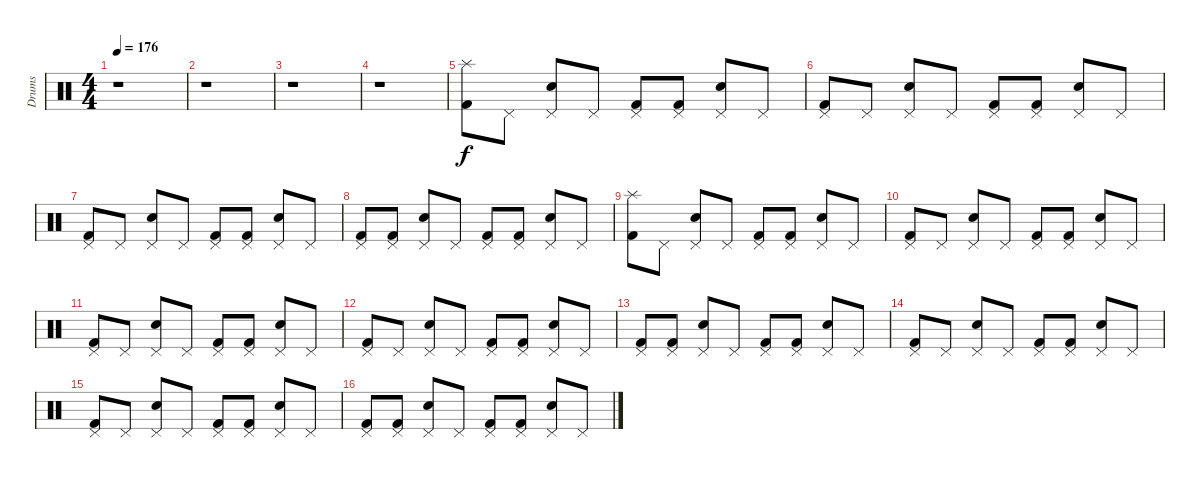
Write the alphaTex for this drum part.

\track ("Drums" "Drums") {instrument percussion}
\staff {score}
\articulation defaults
\ts (4 4)
\tempo 176
\clef neutral
\ks c
r.1{dy f} |
r.1 |
r.1 |
r.1 |
("Splash (hit)" "Kick (hit) 2").8 "Pedal Hi-Hat (hit)".8 ("Snare (hit) 2" "Pedal Hi-Hat (hit)").8 "Pedal Hi-Hat (hit)".8 ("Pedal Hi-Hat (hit)" "Kick (hit) 2").8 ("Kick (hit) 2" "Pedal Hi-Hat (hit)").8 ("Pedal Hi-Hat (hit)" "Snare (hit) 2").8 "Pedal Hi-Hat (hit)".8 |
("Pedal Hi-Hat (hit)" "Kick (hit) 2").8 "Pedal Hi-Hat (hit)".8 ("Snare (hit) 2" "Pedal Hi-Hat (hit)").8 "Pedal Hi-Hat (hit)".8 ("Pedal Hi-Hat (hit)" "Kick (hit) 2").8 ("Kick (hit) 2" "Pedal Hi-Hat (hit)").8 ("Pedal Hi-Hat (hit)" "Snare (hit) 2").8 "Pedal Hi-Hat (hit)".8 |
("Pedal Hi-Hat (hit)" "Kick (hit) 2").8 "Pedal Hi-Hat (hit)".8 ("Snare (hit) 2" "Pedal Hi-Hat (hit)").8 "Pedal Hi-Hat (hit)".8 ("Pedal Hi-Hat (hit)" "Kick (hit) 2").8 ("Kick (hit) 2" "Pedal Hi-Hat (hit)").8 ("Pedal Hi-Hat (hit)" "Snare (hit) 2").8 "Pedal Hi-Hat (hit)".8 |
("Pedal Hi-Hat (hit)" "Kick (hit) 2").8 ("Pedal Hi-Hat (hit)" "Kick (hit) 2").8 ("Snare (hit) 2" "Pedal Hi-Hat (hit)").8 "Pedal Hi-Hat (hit)".8 ("Pedal Hi-Hat (hit)" "Kick (hit) 2").8 ("Kick (hit) 2" "Pedal Hi-Hat (hit)").8 ("Pedal Hi-Hat (hit)" "Snare (hit) 2").8 "Pedal Hi-Hat (hit)".8 |
("Splash (hit)" "Kick (hit) 2").8 "Pedal Hi-Hat (hit)".8 ("Snare (hit) 2" "Pedal Hi-Hat (hit)").8 "Pedal Hi-Hat (hit)".8 ("Pedal Hi-Hat (hit)" "Kick (hit) 2").8 ("Kick (hit) 2" "Pedal Hi-Hat (hit)").8 ("Pedal Hi-Hat (hit)" "Snare (hit) 2").8 "Pedal Hi-Hat (hit)".8 |
("Pedal Hi-Hat (hit)" "Kick (hit) 2").8 "Pedal Hi-Hat (hit)".8 ("Snare (hit) 2" "Pedal Hi-Hat (hit)").8 "Pedal Hi-Hat (hit)".8 ("Pedal Hi-Hat (hit)" "Kick (hit) 2").8 ("Kick (hit) 2" "Pedal Hi-Hat (hit)").8 ("Pedal Hi-Hat (hit)" "Snare (hit) 2").8 "Pedal Hi-Hat (hit)".8 |
("Pedal Hi-Hat (hit)" "Kick (hit) 2").8 "Pedal Hi-Hat (hit)".8 ("Snare (hit) 2" "Pedal Hi-Hat (hit)").8 "Pedal Hi-Hat (hit)".8 ("Pedal Hi-Hat (hit)" "Kick (hit) 2").8 ("Kick (hit) 2" "Pedal Hi-Hat (hit)").8 ("Pedal Hi-Hat (hit)" "Snare (hit) 2").8 "Pedal Hi-Hat (hit)".8 |
("Pedal Hi-Hat (hit)" "Kick (hit) 2").8 "Pedal Hi-Hat (hit)".8 ("Snare (hit) 2" "Pedal Hi-Hat (hit)").8 "Pedal Hi-Hat (hit)".8 ("Pedal Hi-Hat (hit)" "Kick (hit) 2").8 ("Kick (hit) 2" "Pedal Hi-Hat (hit)").8 ("Pedal Hi-Hat (hit)" "Snare (hit) 2").8 "Pedal Hi-Hat (hit)".8 |
("Pedal Hi-Hat (hit)" "Kick (hit) 2").8 ("Pedal Hi-Hat (hit)" "Kick (hit) 2").8 ("Snare (hit) 2" "Pedal Hi-Hat (hit)").8 "Pedal Hi-Hat (hit)".8 ("Pedal Hi-Hat (hit)" "Kick (hit) 2").8 ("Kick (hit) 2" "Pedal Hi-Hat (hit)").8 ("Pedal Hi-Hat (hit)" "Snare (hit) 2").8 "Pedal Hi-Hat (hit)".8 |
("Pedal Hi-Hat (hit)" "Kick (hit) 2").8 "Pedal Hi-Hat (hit)".8 ("Snare (hit) 2" "Pedal Hi-Hat (hit)").8 "Pedal Hi-Hat (hit)".8 ("Pedal Hi-Hat (hit)" "Kick (hit) 2").8 ("Kick (hit) 2" "Pedal Hi-Hat (hit)").8 ("Pedal Hi-Hat (hit)" "Snare (hit) 2").8 "Pedal Hi-Hat (hit)".8 |
("Pedal Hi-Hat (hit)" "Kick (hit) 2").8 "Pedal Hi-Hat (hit)".8 ("Snare (hit) 2" "Pedal Hi-Hat (hit)").8 "Pedal Hi-Hat (hit)".8 ("Pedal Hi-Hat (hit)" "Kick (hit) 2").8 ("Kick (hit) 2" "Pedal Hi-Hat (hit)").8 ("Pedal Hi-Hat (hit)" "Snare (hit) 2").8 "Pedal Hi-Hat (hit)".8 |
("Pedal Hi-Hat (hit)" "Kick (hit) 2").8 ("Pedal Hi-Hat (hit)" "Kick (hit) 2").8 ("Snare (hit) 2" "Pedal Hi-Hat (hit)").8 "Pedal Hi-Hat (hit)".8 ("Pedal Hi-Hat (hit)" "Kick (hit) 2").8 ("Kick (hit) 2" "Pedal Hi-Hat (hit)").8 ("Pedal Hi-Hat (hit)" "Snare (hit) 2").8 "Pedal Hi-Hat (hit)".8
